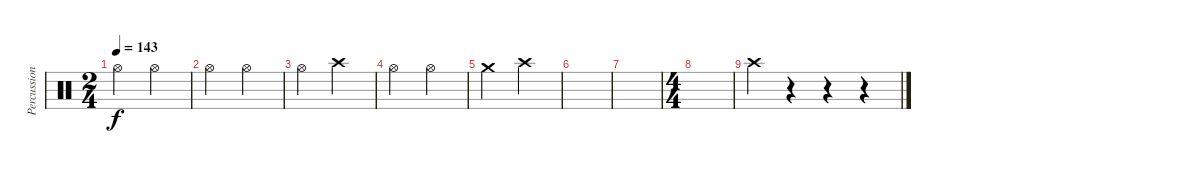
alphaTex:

\track ("Percussion2" "Percussion") {instrument percussion}
\staff {score}
\articulation defaults
\ts (2 4)
\tempo 143
\clef neutral
\ks c "Hi-Hat (open)".4{dy f} "Hi-Hat (open)".4
|
"Hi-Hat (open)".4 "Hi-Hat (open)".4 |
"Hi-Hat (open)".4 "Crash high (hit)".4 |
"Hi-Hat (open)".4 "Hi-Hat (open)".4 |
"Crash medium (hit)".4 "Crash high (hit)".4 |
|
|
\ts (4 4)
|
"Crash high (hit)".4 r.4 r.4 r.4
